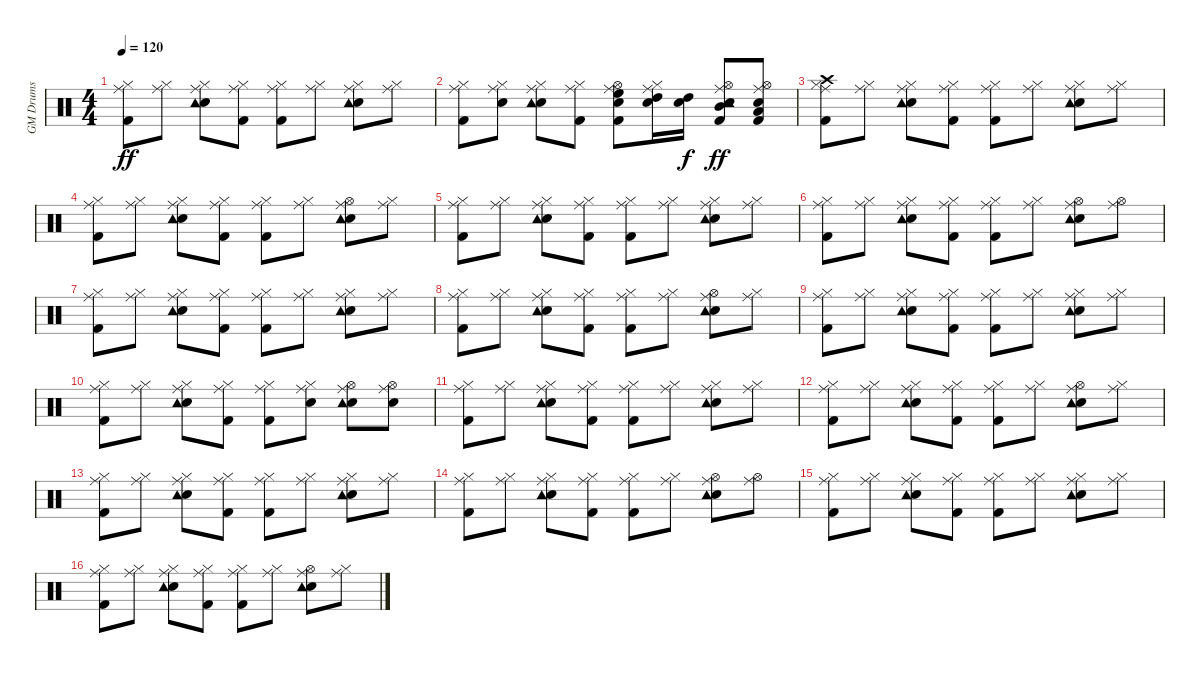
\track ("GM Drums" "GM Drums") {instrument percussion}
\staff {score}
\articulation defaults
\ts (4 4)
\tempo 120
\clef neutral
\ks c
("Kick (hit) 2" "Hi-Hat (closed)" "Ride (middle)").8{dy ff} ("Hi-Hat (closed)" "Ride (middle)").8 ("Electric Snare (hit)" "Hi-Hat (closed)" "Ride (middle)" "Tambourine (hit)").8 ("Kick (hit) 2" "Hi-Hat (closed)" "Ride (middle)").8 ("Kick (hit) 2" "Hi-Hat (closed)" "Ride (middle)").8 ("Hi-Hat (closed)" "Ride (middle)").8 ("Electric Snare (hit)" "Hi-Hat (closed)" "Ride (middle)" "Tambourine (hit)").8 ("Hi-Hat (closed)" "Ride (middle)").8 |
("Kick (hit) 2" "Hi-Hat (closed)" "Ride (middle)").8 ("Electric Snare (hit)" "Hi-Hat (closed)" "Ride (middle)").8 ("Electric Snare (hit)" "Hi-Hat (closed)" "Ride (middle)" "Tambourine (hit)").8 ("Kick (hit) 2" "Hi-Hat (closed)" "Ride (middle)").8 ("Kick (hit) 2" "Electric Snare (hit)" "Hi-Hat (open)" "High Floor Tom (hit)" "Ride (middle)").8 ("Electric Snare (hit)" "Hi-Hat (closed)" "High Tom (hit)" "Ride (middle)").16 ("Electric Snare (hit)" "High Tom (hit)").16{dy f} ("Kick (hit) 2" "Electric Snare (hit)" "Hi-Hat (open)" "Mid Tom (hit)" "Ride (middle)" "Tambourine (hit)").8{dy ff} ("Kick (hit) 2" "Electric Snare (hit)" "Low Tom (hit)" "Hi-Hat (open)" "Ride (middle)").8 |
("Kick (hit) 2" "Hi-Hat (closed)" "Crash high (hit)" "Ride (middle)").8 ("Hi-Hat (closed)" "Ride (middle)").8 ("Electric Snare (hit)" "Hi-Hat (closed)" "Ride (middle)" "Tambourine (hit)").8 ("Kick (hit) 2" "Hi-Hat (closed)" "Ride (middle)").8 ("Kick (hit) 2" "Hi-Hat (closed)" "Ride (middle)").8 ("Hi-Hat (closed)" "Ride (middle)").8 ("Electric Snare (hit)" "Hi-Hat (closed)" "Ride (middle)" "Tambourine (hit)").8 ("Hi-Hat (closed)" "Ride (middle)").8 |
("Kick (hit) 2" "Hi-Hat (closed)" "Ride (middle)").8 ("Hi-Hat (closed)" "Ride (middle)").8 ("Electric Snare (hit)" "Hi-Hat (closed)" "Ride (middle)" "Tambourine (hit)").8 ("Kick (hit) 2" "Hi-Hat (closed)" "Ride (middle)").8 ("Kick (hit) 2" "Hi-Hat (closed)" "Ride (middle)").8 ("Hi-Hat (closed)" "Ride (middle)").8 ("Electric Snare (hit)" "Hi-Hat (open)" "Ride (middle)" "Tambourine (hit)").8 ("Hi-Hat (closed)" "Ride (middle)").8 |
("Kick (hit) 2" "Hi-Hat (closed)" "Ride (middle)").8 ("Hi-Hat (closed)" "Ride (middle)").8 ("Electric Snare (hit)" "Hi-Hat (closed)" "Ride (middle)" "Tambourine (hit)").8 ("Kick (hit) 2" "Hi-Hat (closed)" "Ride (middle)").8 ("Kick (hit) 2" "Hi-Hat (closed)" "Ride (middle)").8 ("Hi-Hat (closed)" "Ride (middle)").8 ("Electric Snare (hit)" "Hi-Hat (closed)" "Ride (middle)" "Tambourine (hit)").8 ("Hi-Hat (closed)" "Ride (middle)").8 |
("Kick (hit) 2" "Hi-Hat (closed)" "Ride (middle)").8 ("Hi-Hat (closed)" "Ride (middle)").8 ("Electric Snare (hit)" "Hi-Hat (closed)" "Ride (middle)" "Tambourine (hit)").8 ("Kick (hit) 2" "Hi-Hat (closed)" "Ride (middle)").8 ("Kick (hit) 2" "Hi-Hat (closed)" "Ride (middle)").8 ("Hi-Hat (closed)" "Ride (middle)").8 ("Electric Snare (hit)" "Hi-Hat (open)" "Ride (middle)" "Tambourine (hit)").8 ("Hi-Hat (open)" "Ride (middle)").8 |
("Kick (hit) 2" "Hi-Hat (closed)" "Ride (middle)").8 ("Hi-Hat (closed)" "Ride (middle)").8 ("Electric Snare (hit)" "Hi-Hat (closed)" "Ride (middle)" "Tambourine (hit)").8 ("Kick (hit) 2" "Hi-Hat (closed)" "Ride (middle)").8 ("Kick (hit) 2" "Hi-Hat (closed)" "Ride (middle)").8 ("Hi-Hat (closed)" "Ride (middle)").8 ("Electric Snare (hit)" "Hi-Hat (closed)" "Ride (middle)" "Tambourine (hit)").8 ("Hi-Hat (closed)" "Ride (middle)").8 |
("Kick (hit) 2" "Hi-Hat (closed)" "Ride (middle)").8 ("Hi-Hat (closed)" "Ride (middle)").8 ("Electric Snare (hit)" "Hi-Hat (closed)" "Ride (middle)" "Tambourine (hit)").8 ("Kick (hit) 2" "Hi-Hat (closed)" "Ride (middle)").8 ("Kick (hit) 2" "Hi-Hat (closed)" "Ride (middle)").8 ("Hi-Hat (closed)" "Ride (middle)").8 ("Electric Snare (hit)" "Hi-Hat (open)" "Ride (middle)" "Tambourine (hit)").8 ("Hi-Hat (closed)" "Ride (middle)").8 |
("Kick (hit) 2" "Hi-Hat (closed)" "Ride (middle)").8 ("Hi-Hat (closed)" "Ride (middle)").8 ("Electric Snare (hit)" "Hi-Hat (closed)" "Ride (middle)" "Tambourine (hit)").8 ("Kick (hit) 2" "Hi-Hat (closed)" "Ride (middle)").8 ("Kick (hit) 2" "Hi-Hat (closed)" "Ride (middle)").8 ("Hi-Hat (closed)" "Ride (middle)").8 ("Electric Snare (hit)" "Hi-Hat (closed)" "Ride (middle)" "Tambourine (hit)").8 ("Hi-Hat (closed)" "Ride (middle)").8 |
("Kick (hit) 2" "Hi-Hat (closed)" "Ride (middle)").8 ("Hi-Hat (closed)" "Ride (middle)").8 ("Electric Snare (hit)" "Hi-Hat (closed)" "Ride (middle)" "Tambourine (hit)").8 ("Kick (hit) 2" "Hi-Hat (closed)" "Ride (middle)").8 ("Kick (hit) 2" "Hi-Hat (closed)" "Ride (middle)").8 ("Electric Snare (hit)" "Hi-Hat (closed)" "Ride (middle)").8 ("Electric Snare (hit)" "Hi-Hat (open)" "Ride (middle)" "Tambourine (hit)").8 ("Electric Snare (hit)" "Hi-Hat (open)" "Ride (middle)").8 |
("Kick (hit) 2" "Hi-Hat (closed)" "Ride (middle)").8 ("Hi-Hat (closed)" "Ride (middle)").8 ("Electric Snare (hit)" "Hi-Hat (closed)" "Ride (middle)" "Tambourine (hit)").8 ("Kick (hit) 2" "Hi-Hat (closed)" "Ride (middle)").8 ("Kick (hit) 2" "Hi-Hat (closed)" "Ride (middle)").8 ("Hi-Hat (closed)" "Ride (middle)").8 ("Electric Snare (hit)" "Hi-Hat (closed)" "Ride (middle)" "Tambourine (hit)").8 ("Hi-Hat (closed)" "Ride (middle)").8 |
("Kick (hit) 2" "Hi-Hat (closed)" "Ride (middle)").8 ("Hi-Hat (closed)" "Ride (middle)").8 ("Electric Snare (hit)" "Hi-Hat (closed)" "Ride (middle)" "Tambourine (hit)").8 ("Kick (hit) 2" "Hi-Hat (closed)" "Ride (middle)").8 ("Kick (hit) 2" "Hi-Hat (closed)" "Ride (middle)").8 ("Hi-Hat (closed)" "Ride (middle)").8 ("Electric Snare (hit)" "Hi-Hat (open)" "Ride (middle)" "Tambourine (hit)").8 ("Hi-Hat (closed)" "Ride (middle)").8 |
("Kick (hit) 2" "Hi-Hat (closed)" "Ride (middle)").8 ("Hi-Hat (closed)" "Ride (middle)").8 ("Electric Snare (hit)" "Hi-Hat (closed)" "Ride (middle)" "Tambourine (hit)").8 ("Kick (hit) 2" "Hi-Hat (closed)" "Ride (middle)").8 ("Kick (hit) 2" "Hi-Hat (closed)" "Ride (middle)").8 ("Hi-Hat (closed)" "Ride (middle)").8 ("Electric Snare (hit)" "Hi-Hat (closed)" "Ride (middle)" "Tambourine (hit)").8 ("Hi-Hat (closed)" "Ride (middle)").8 |
("Kick (hit) 2" "Hi-Hat (closed)" "Ride (middle)").8 ("Hi-Hat (closed)" "Ride (middle)").8 ("Electric Snare (hit)" "Hi-Hat (closed)" "Ride (middle)" "Tambourine (hit)").8 ("Kick (hit) 2" "Hi-Hat (closed)" "Ride (middle)").8 ("Kick (hit) 2" "Hi-Hat (closed)" "Ride (middle)").8 ("Hi-Hat (closed)" "Ride (middle)").8 ("Electric Snare (hit)" "Hi-Hat (open)" "Ride (middle)" "Tambourine (hit)").8 ("Hi-Hat (open)" "Ride (middle)").8 |
("Kick (hit) 2" "Hi-Hat (closed)" "Ride (middle)").8 ("Hi-Hat (closed)" "Ride (middle)").8 ("Electric Snare (hit)" "Hi-Hat (closed)" "Ride (middle)" "Tambourine (hit)").8 ("Kick (hit) 2" "Hi-Hat (closed)" "Ride (middle)").8 ("Kick (hit) 2" "Hi-Hat (closed)" "Ride (middle)").8 ("Hi-Hat (closed)" "Ride (middle)").8 ("Electric Snare (hit)" "Hi-Hat (closed)" "Ride (middle)" "Tambourine (hit)").8 ("Hi-Hat (closed)" "Ride (middle)").8 |
("Kick (hit) 2" "Hi-Hat (closed)" "Ride (middle)").8 ("Hi-Hat (closed)" "Ride (middle)").8 ("Electric Snare (hit)" "Hi-Hat (closed)" "Ride (middle)" "Tambourine (hit)").8 ("Kick (hit) 2" "Hi-Hat (closed)" "Ride (middle)").8 ("Kick (hit) 2" "Hi-Hat (closed)" "Ride (middle)").8 ("Hi-Hat (closed)" "Ride (middle)").8 ("Electric Snare (hit)" "Hi-Hat (open)" "Ride (middle)" "Tambourine (hit)").8 ("Hi-Hat (closed)" "Ride (middle)").8
